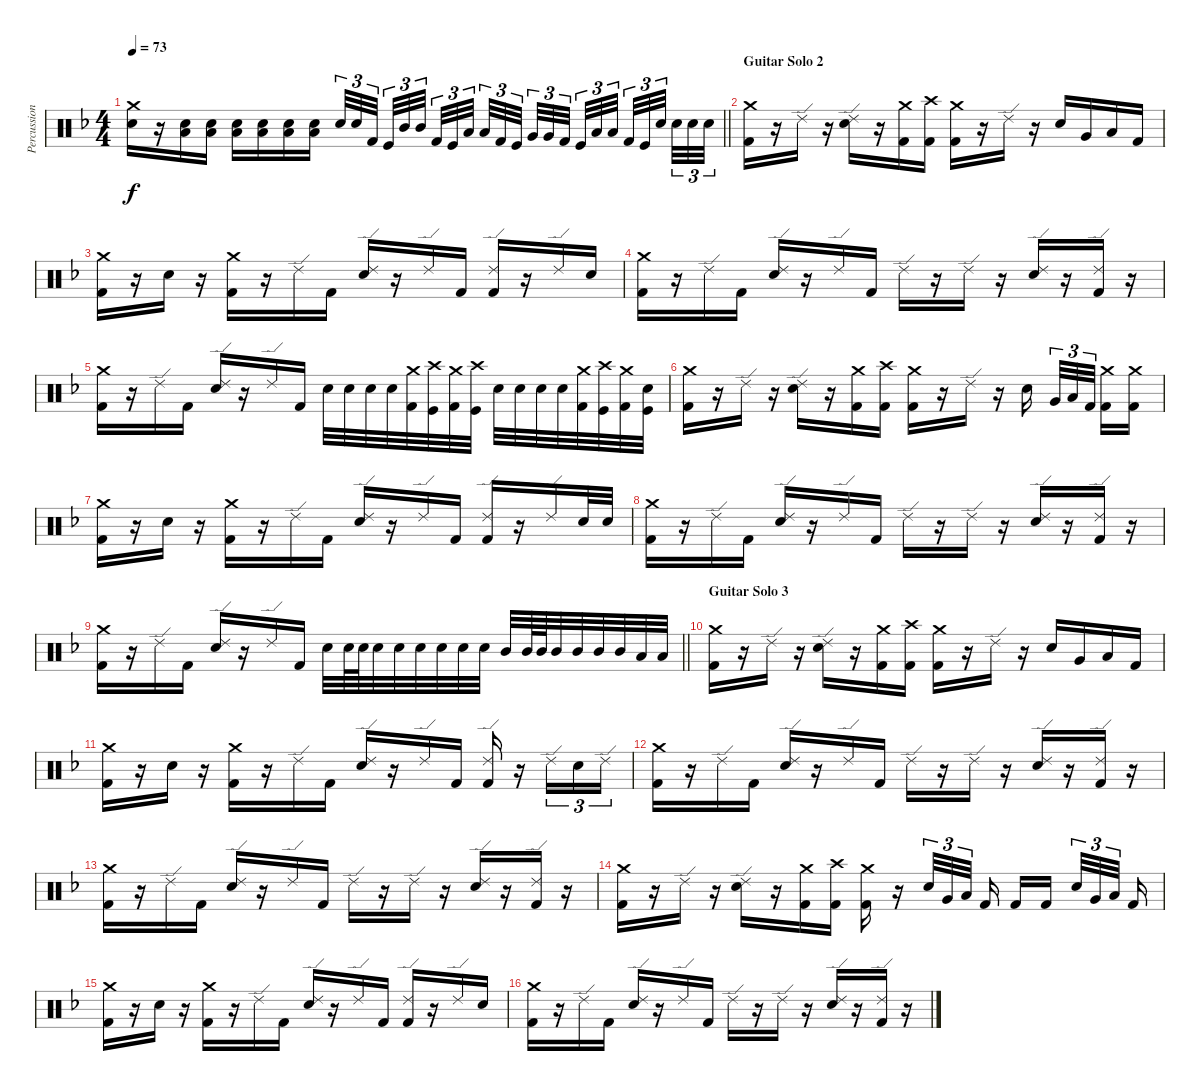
\track ("Percussion" "Percussion") {instrument percussion}
\staff {score}
\articulation defaults
\ts (4 4)
\tempo 73
\clef neutral
\barLineRight lightlight
\ks f
("Crash medium (hit)" "Electric Snare (hit)").16{dy f} r.16 ("Electric Snare (hit)" "Low Floor Tom (hit)").16 ("Electric Snare (hit)" "Low Floor Tom (hit)").16 ("Electric Snare (hit)" "Low Floor Tom (hit)").16 ("Electric Snare (hit)" "Low Floor Tom (hit)").16 ("Electric Snare (hit)" "Low Floor Tom (hit)").16 ("Electric Snare (hit)" "Low Floor Tom (hit)").16 "Electric Snare (hit)".32{tu (3 2)} "Electric Snare (hit)".32{tu (3 2)} "Kick (hit) 2".32{tu (3 2) beam splitsecondary} "Kick (hit)".32{tu (3 2)} "Mid Tom (hit)".32{tu (3 2)} "Mid Tom (hit)".32{tu (3 2) beam splitsecondary} "Kick (hit) 2".32{tu (3 2)} "Kick (hit)".32{tu (3 2)} "Low Tom (hit)".32{tu (3 2) beam splitsecondary} "Low Tom (hit)".32{tu (3 2)} "Kick (hit) 2".32{tu (3 2)} "Kick (hit)".32{tu (3 2)} "Very Low Tom (hit)".32{tu (3 2)} "Very Low Tom (hit)".32{tu (3 2)} "Kick (hit) 2".32{tu (3 2) beam splitsecondary} "Kick (hit)".32{tu (3 2)} "Low Floor Tom (hit)".32{tu (3 2)} "Low Floor Tom (hit)".32{tu (3 2) beam splitsecondary} "Kick (hit) 2".32{tu (3 2)} "Kick (hit)".32{tu (3 2)} "Electric Snare (hit)".32{tu (3 2) beam splitsecondary} "Electric Snare (hit)".32{tu (3 2)} "Electric Snare (hit)".32{tu (3 2)} "Electric Snare (hit)".32{tu (3 2)} |
\section ("" "Guitar Solo 2")
("Crash medium (hit)" "Kick (hit) 2").16 r.16 "Ride (edge) 2".16 r.16 ("Ride (edge) 2" "Electric Snare (hit)").16 r.16 ("Crash medium (hit)" "Kick (hit) 2").16 ("Crash high (hit)" "Kick (hit) 2").16 ("Crash medium (hit)" "Kick (hit) 2").16 r.16 "Ride (edge) 2".16 r.16 "Electric Snare (hit)".16 "Very Low Tom (hit)".16 "Low Floor Tom (hit)".16 "Kick (hit) 2".16 |
("Crash medium (hit)" "Kick (hit) 2").16 r.16 "Electric Snare (hit)".16 r.16 ("Crash medium (hit)" "Kick (hit) 2").16 r.16 "Ride (edge) 2".16 "Kick (hit) 2".16 ("Ride (edge) 2" "Electric Snare (hit)").16 r.16 "Ride (edge) 2".16 "Kick (hit) 2".16 ("Ride (edge) 2" "Kick (hit) 2").16 r.16 "Ride (edge) 2".16 "Electric Snare (hit)".16 |
("Crash medium (hit)" "Kick (hit) 2").16 r.16 "Ride (edge) 2".16 "Kick (hit) 2".16 ("Ride (edge) 2" "Electric Snare (hit)").16 r.16 "Ride (edge) 2".16 "Kick (hit) 2".16 "Ride (edge) 2".16 r.16 "Ride (edge) 2".16 r.16 ("Ride (edge) 2" "Electric Snare (hit)").16 r.16 ("Ride (edge) 2" "Kick (hit) 2").16 r.16 |
("Crash medium (hit)" "Kick (hit) 2").16 r.16 "Ride (edge) 2".16 "Kick (hit) 2".16 ("Ride (edge) 2" "Electric Snare (hit)").16 r.16 "Ride (edge) 2".16 "Kick (hit) 2".16 "Electric Snare (hit)".32 "Electric Snare (hit)".32 "Electric Snare (hit)".32 "Electric Snare (hit)".32 ("Crash medium (hit)" "Kick (hit) 2").32 ("Crash high (hit)" "Kick (hit)").32 ("Crash medium (hit)" "Kick (hit) 2").32 ("Crash high (hit)" "Kick (hit)").32 "Electric Snare (hit)".32 "Electric Snare (hit)".32 "Electric Snare (hit)".32 "Electric Snare (hit)".32 ("Crash medium (hit)" "Kick (hit) 2").32 ("Crash high (hit)" "Kick (hit)").32 ("Crash medium (hit)" "Kick (hit) 2").32 ("Electric Snare (hit)" "Kick (hit)").32 |
("Crash medium (hit)" "Kick (hit) 2").16 r.16 "Ride (edge) 2".16 r.16 ("Ride (edge) 2" "Electric Snare (hit)").16 r.16 ("Crash medium (hit)" "Kick (hit) 2").16 ("Crash high (hit)" "Kick (hit) 2").16 ("Crash medium (hit)" "Kick (hit) 2").16 r.16 "Ride (edge) 2".16 r.16 "Electric Snare (hit)".16{beam splitsecondary} "Very Low Tom (hit)".32{tu (3 2)} "Low Floor Tom (hit)".32{tu (3 2)} "Kick (hit) 2".32{tu (3 2) beam splitsecondary} ("Crash medium (hit)" "Kick (hit) 2").16 ("Crash medium (hit)" "Kick (hit) 2").16 |
("Crash medium (hit)" "Kick (hit) 2").16 r.16 "Electric Snare (hit)".16 r.16 ("Crash medium (hit)" "Kick (hit) 2").16 r.16 "Ride (edge) 2".16 "Kick (hit) 2".16 ("Ride (edge) 2" "Electric Snare (hit)").16 r.16 "Ride (edge) 2".16 "Kick (hit) 2".16 ("Ride (edge) 2" "Kick (hit) 2").16 r.16 "Ride (edge) 2".16 "Electric Snare (hit)".32 "Electric Snare (hit)".32 |
("Crash medium (hit)" "Kick (hit) 2").16 r.16 "Ride (edge) 2".16 "Kick (hit) 2".16 ("Ride (edge) 2" "Electric Snare (hit)").16 r.16 "Ride (edge) 2".16 "Kick (hit) 2".16 "Ride (edge) 2".16 r.16 "Ride (edge) 2".16 r.16 ("Ride (edge) 2" "Electric Snare (hit)").16 r.16 ("Ride (edge) 2" "Kick (hit) 2").16 r.16 |
\barLineRight lightlight
("Crash medium (hit)" "Kick (hit) 2").16 r.16 "Ride (edge) 2".16 "Kick (hit) 2".16 ("Ride (edge) 2" "Electric Snare (hit)").16 r.16 "Ride (edge) 2".16 "Kick (hit) 2".16 "Electric Snare (hit)".32 "Electric Snare (hit)".64 "Electric Snare (hit)".64 "Electric Snare (hit)".32 "Electric Snare (hit)".32 "Electric Snare (hit)".32 "Electric Snare (hit)".32 "Electric Snare (hit)".32 "Electric Snare (hit)".32 "Mid Tom (hit)".32 "Mid Tom (hit)".64 "Mid Tom (hit)".64 "Mid Tom (hit)".32 "Mid Tom (hit)".32 "Mid Tom (hit)".32 "Mid Tom (hit)".32 "Low Tom (hit)".32 "Low Tom (hit)".32 |
\section ("" "Guitar Solo 3")
("Crash medium (hit)" "Kick (hit) 2").16 r.16 "Ride (edge) 2".16 r.16 ("Ride (edge) 2" "Electric Snare (hit)").16 r.16 ("Crash medium (hit)" "Kick (hit) 2").16 ("Crash high (hit)" "Kick (hit) 2").16 ("Crash medium (hit)" "Kick (hit) 2").16 r.16 "Ride (edge) 2".16 r.16 "Electric Snare (hit)".16 "Very Low Tom (hit)".16 "Low Floor Tom (hit)".16 "Kick (hit) 2".16 |
("Crash medium (hit)" "Kick (hit) 2").16 r.16 "Electric Snare (hit)".16 r.16 ("Crash medium (hit)" "Kick (hit) 2").16 r.16 "Ride (edge) 2".16 "Kick (hit) 2".16 ("Ride (edge) 2" "Electric Snare (hit)").16 r.16 "Ride (edge) 2".16 "Kick (hit) 2".16 ("Ride (edge) 2" "Kick (hit) 2").16 r.16 "Ride (edge) 2".16{tu (3 2)} "Electric Snare (hit)".16{tu (3 2)} "Ride (edge) 2".16{tu (3 2)} |
("Crash medium (hit)" "Kick (hit) 2").16 r.16 "Ride (edge) 2".16 "Kick (hit) 2".16 ("Ride (edge) 2" "Electric Snare (hit)").16 r.16 "Ride (edge) 2".16 "Kick (hit) 2".16 "Ride (edge) 2".16 r.16 "Ride (edge) 2".16 r.16 ("Ride (edge) 2" "Electric Snare (hit)").16 r.16 ("Ride (edge) 2" "Kick (hit) 2").16 r.16 |
("Crash medium (hit)" "Kick (hit) 2").16 r.16 "Ride (edge) 2".16 "Kick (hit) 2".16 ("Ride (edge) 2" "Electric Snare (hit)").16 r.16 "Ride (edge) 2".16 "Kick (hit) 2".16 "Ride (edge) 2".16 r.16 "Ride (edge) 2".16 r.16 ("Ride (edge) 2" "Electric Snare (hit)").16 r.16 ("Ride (edge) 2" "Kick (hit) 2").16 r.16 |
("Crash medium (hit)" "Kick (hit) 2").16 r.16 "Ride (edge) 2".16 r.16 ("Ride (edge) 2" "Electric Snare (hit)").16 r.16 ("Crash medium (hit)" "Kick (hit) 2").16 ("Crash high (hit)" "Kick (hit) 2").16 ("Crash medium (hit)" "Kick (hit) 2").16 r.16 "Electric Snare (hit)".32{tu (3 2)} "Very Low Tom (hit)".32{tu (3 2)} "Low Floor Tom (hit)".32{tu (3 2) beam splitsecondary} "Kick (hit) 2".16 "Kick (hit) 2".16 "Kick (hit) 2".16{beam splitsecondary} "Electric Snare (hit)".32{tu (3 2)} "Very Low Tom (hit)".32{tu (3 2)} "Low Floor Tom (hit)".32{tu (3 2) beam splitsecondary} "Kick (hit) 2".16 |
("Crash medium (hit)" "Kick (hit) 2").16 r.16 "Electric Snare (hit)".16 r.16 ("Crash medium (hit)" "Kick (hit) 2").16 r.16 "Ride (edge) 2".16 "Kick (hit) 2".16 ("Ride (edge) 2" "Electric Snare (hit)").16 r.16 "Ride (edge) 2".16 "Kick (hit) 2".16 ("Ride (edge) 2" "Kick (hit) 2").16 r.16 "Ride (edge) 2".16 "Electric Snare (hit)".16 |
("Crash medium (hit)" "Kick (hit) 2").16 r.16 "Ride (edge) 2".16 "Kick (hit) 2".16 ("Ride (edge) 2" "Electric Snare (hit)").16 r.16 "Ride (edge) 2".16 "Kick (hit) 2".16 "Ride (edge) 2".16 r.16 "Ride (edge) 2".16 r.16 ("Ride (edge) 2" "Electric Snare (hit)").16 r.16 ("Ride (edge) 2" "Kick (hit) 2").16 r.16
